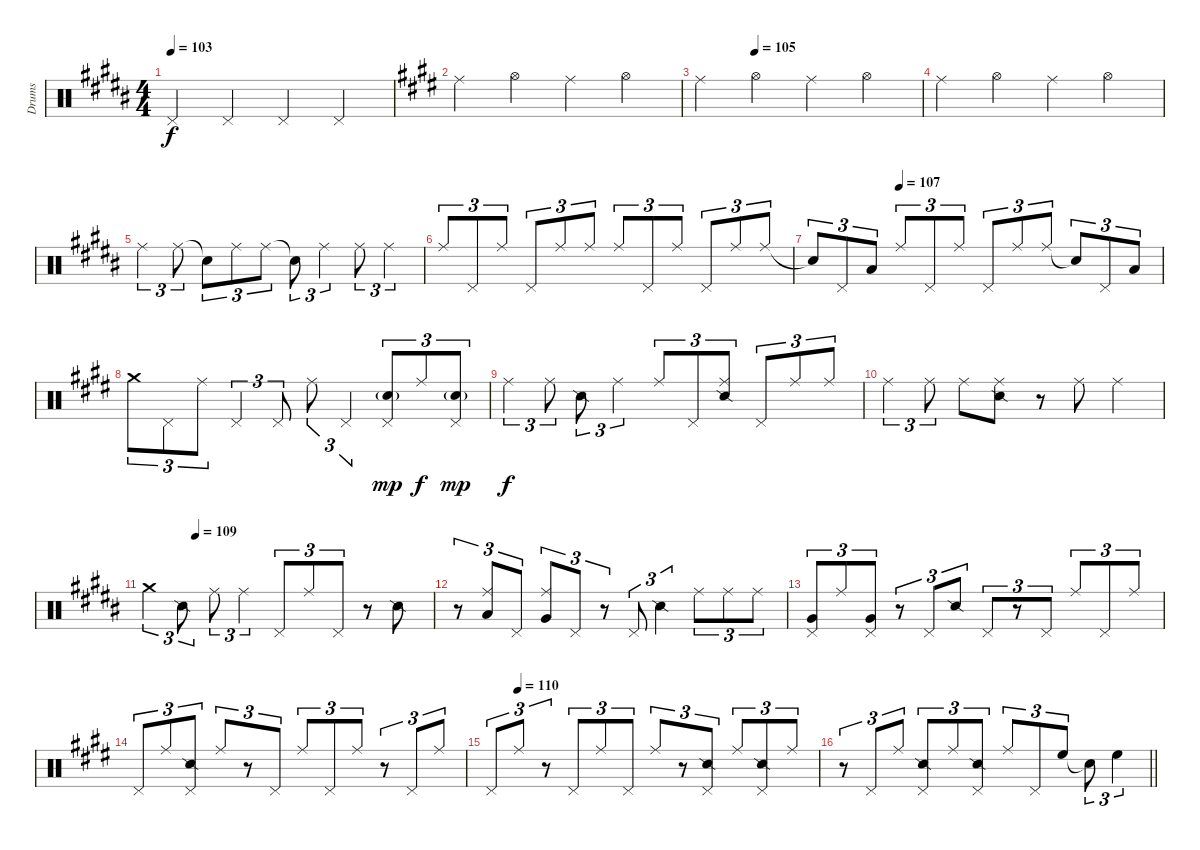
\track ("Drums" "Drums") {instrument percussion}
\staff {score}
\articulation defaults
\ts (4 4)
\tempo 103
\clef neutral
\ks b "Pedal Hi-Hat (hit)".4{dy f} "Pedal Hi-Hat (hit)".4 "Pedal Hi-Hat (hit)".4 "Pedal Hi-Hat (hit)".4
|
\ks e "Ride (middle)".4 "Hi-Hat (open)".4 "Ride (middle)".4 "Hi-Hat (open)".4
|
\tempo (105 0.25)
"Ride (middle)".4 "Hi-Hat (open)".4 "Ride (middle)".4 "Hi-Hat (open)".4 |
"Ride (middle)".4 "Hi-Hat (open)".4 "Ride (middle)".4 "Hi-Hat (open)".4 |
\ks b "Ride (middle)".4{tu (3 2)} "Ride (middle)".8{tu (3 2)} "Snare (hit)"{t}.8{tu (3 2)} "Ride (middle)".8{tu (3 2)} "Ride (middle)".8{tu (3 2)} "Snare (hit)"{t}.8{tu (3 2)} "Ride (middle)".4{tu (3 2)} "Ride (middle)".8{tu (3 2)} "Ride (middle)".4{tu (3 2)}
|
"Ride (middle)".8{tu (3 2)} "Pedal Hi-Hat (hit)".8{tu (3 2)} "Ride (middle)".8{tu (3 2)} "Pedal Hi-Hat (hit)".8{tu (3 2)} "Ride (middle)".8{tu (3 2)} "Ride (middle)".8{tu (3 2)} "Ride (middle)".8{tu (3 2)} "Pedal Hi-Hat (hit)".8{tu (3 2)} "Ride (middle)".8{tu (3 2)} "Pedal Hi-Hat (hit)".8{tu (3 2)} "Ride (middle)".8{tu (3 2)} "Ride (middle)".8{tu (3 2)} |
\tempo (107 0.25)
"Snare (hit)"{t}.8{tu (3 2)} "Pedal Hi-Hat (hit)".8{tu (3 2)} "Low Tom (hit)".8{tu (3 2)} "Ride (middle)".8{tu (3 2)} "Pedal Hi-Hat (hit)".8{tu (3 2)} "Ride (middle)".8{tu (3 2)} "Pedal Hi-Hat (hit)".8{tu (3 2)} "Ride (middle)".8{tu (3 2)} "Ride (middle)".8{tu (3 2)} "Snare (hit)"{t}.8{tu (3 2)} "Pedal Hi-Hat (hit)".8{tu (3 2)} "Low Tom (hit)".8{tu (3 2)} |
\ks e "Crash medium (hit)".8{tu (3 2)} "Pedal Hi-Hat (hit)".8{tu (3 2)} "Ride (middle)".8{tu (3 2)} "Pedal Hi-Hat (hit)".4{tu (3 2)} "Pedal Hi-Hat (hit)".8{tu (3 2)} "Ride (middle)".8{tu (3 2)} "Pedal Hi-Hat (hit)".4{tu (3 2)}
("Pedal Hi-Hat (hit)" "Snare (hit) 2"{g}).8{tu (3 2) dy mp} "Ride (middle)".8{tu (3 2) dy f} ("Pedal Hi-Hat (hit)" "Snare (hit) 2"{g}).8{tu (3 2) dy mp} |
"Ride (middle)".4{tu (3 2) dy f} "Ride (middle)".8{tu (3 2)} "Snare (side stick) 2".8{tu (3 2)} "Ride (middle)".4{tu (3 2)} "Ride (middle)".8{tu (3 2)} "Pedal Hi-Hat (hit)".8{tu (3 2)} ("Ride (middle)" "Snare (side stick) 2").8{tu (3 2)} "Pedal Hi-Hat (hit)".8{tu (3 2)} "Ride (middle)".8{tu (3 2)} "Ride (middle)".8{tu (3 2)} |
"Ride (middle)".4{tu (3 2)} "Ride (middle)".8{tu (3 2)} "Ride (middle)".8 ("Ride (middle)" "Snare (side stick) 2").8 r.8 "Ride (middle)".8 "Ride (middle)".4 |
\tempo (109 0.16666666666666666)
\ks b "Crash medium (hit)".4{tu (3 2)} "Snare (side stick) 2".8{tu (3 2)} "Ride (middle)".8{tu (3 2)} "Ride (middle)".4{tu (3 2)} "Pedal Hi-Hat (hit)".8{tu (3 2)} "Ride (middle)".8{tu (3 2)} "Pedal Hi-Hat (hit)".8{tu (3 2)}
r.8 "Snare (side stick) 2".8 |
r.8{tu (3 2)} ("Ride (middle)" "Low Tom (hit)").8{tu (3 2)} "Pedal Hi-Hat (hit)".8{tu (3 2)} ("Ride (middle)" "Very Low Tom (hit)").8{tu (3 2)} "Pedal Hi-Hat (hit)".8{tu (3 2)} r.8{tu (3 2)} "Pedal Hi-Hat (hit)".8{tu (3 2)} "Snare (side stick) 2".4{tu (3 2)} "Ride (middle)".8{tu (3 2)} "Ride (middle)".8{tu (3 2)} "Ride (middle)".8{tu (3 2)} |
("Pedal Hi-Hat (hit)" "Very Low Tom (hit)").8{tu (3 2)} "Ride (middle)".8{tu (3 2)} ("Pedal Hi-Hat (hit)" "Very Low Tom (hit)").8{tu (3 2)} r.8{tu (3 2)} "Pedal Hi-Hat (hit)".8{tu (3 2)} "Snare (side stick) 2".8{tu (3 2)} "Pedal Hi-Hat (hit)".8{tu (3 2)} r.8{tu (3 2)} "Pedal Hi-Hat (hit)".8{tu (3 2)} "Ride (middle)".8{tu (3 2)} "Pedal Hi-Hat (hit)".8{tu (3 2)} "Ride (middle)".8{tu (3 2)} |
\ks e "Pedal Hi-Hat (hit)".8{tu (3 2)} "Ride (middle)".8{tu (3 2)}
("Pedal Hi-Hat (hit)" "Snare (side stick) 2").8{tu (3 2)} "Ride (middle)".8{tu (3 2)} r.8{tu (3 2)} "Pedal Hi-Hat (hit)".8{tu (3 2)} "Ride (middle)".8{tu (3 2)} "Pedal Hi-Hat (hit)".8{tu (3 2)} "Ride (middle)".8{tu (3 2)} r.8{tu (3 2)} "Pedal Hi-Hat (hit)".8{tu (3 2)} "Ride (middle)".8{tu (3 2)} |
\tempo (110 0.08333333333333333)
"Pedal Hi-Hat (hit)".8{tu (3 2)} "Ride (middle)".8{tu (3 2)} r.8{tu (3 2)} "Pedal Hi-Hat (hit)".8{tu (3 2)} "Ride (middle)".8{tu (3 2)} "Pedal Hi-Hat (hit)".8{tu (3 2)} "Ride (middle)".8{tu (3 2)} r.8{tu (3 2)} ("Pedal Hi-Hat (hit)" "Snare (side stick) 2").8{tu (3 2)} "Ride (middle)".8{tu (3 2)} ("Pedal Hi-Hat (hit)" "Snare (side stick) 2").8{tu (3 2)} "Ride (middle)".8{tu (3 2)} |
\barLineRight lightlight
r.8{tu (3 2)} "Pedal Hi-Hat (hit)".8{tu (3 2)} "Ride (middle)".8{tu (3 2)} ("Pedal Hi-Hat (hit)" "Snare (side stick) 2").8{tu (3 2)} "Ride (middle)".8{tu (3 2)} ("Pedal Hi-Hat (hit)" "Snare (side stick) 2").8{tu (3 2)} "Ride (middle)".8{tu (3 2)} "Pedal Hi-Hat (hit)".8{tu (3 2)} "High Floor Tom (hit)".8{tu (3 2)} "Snare (hit)"{t}.8{tu (3 2)} "High Floor Tom (hit)".4{tu (3 2)}
